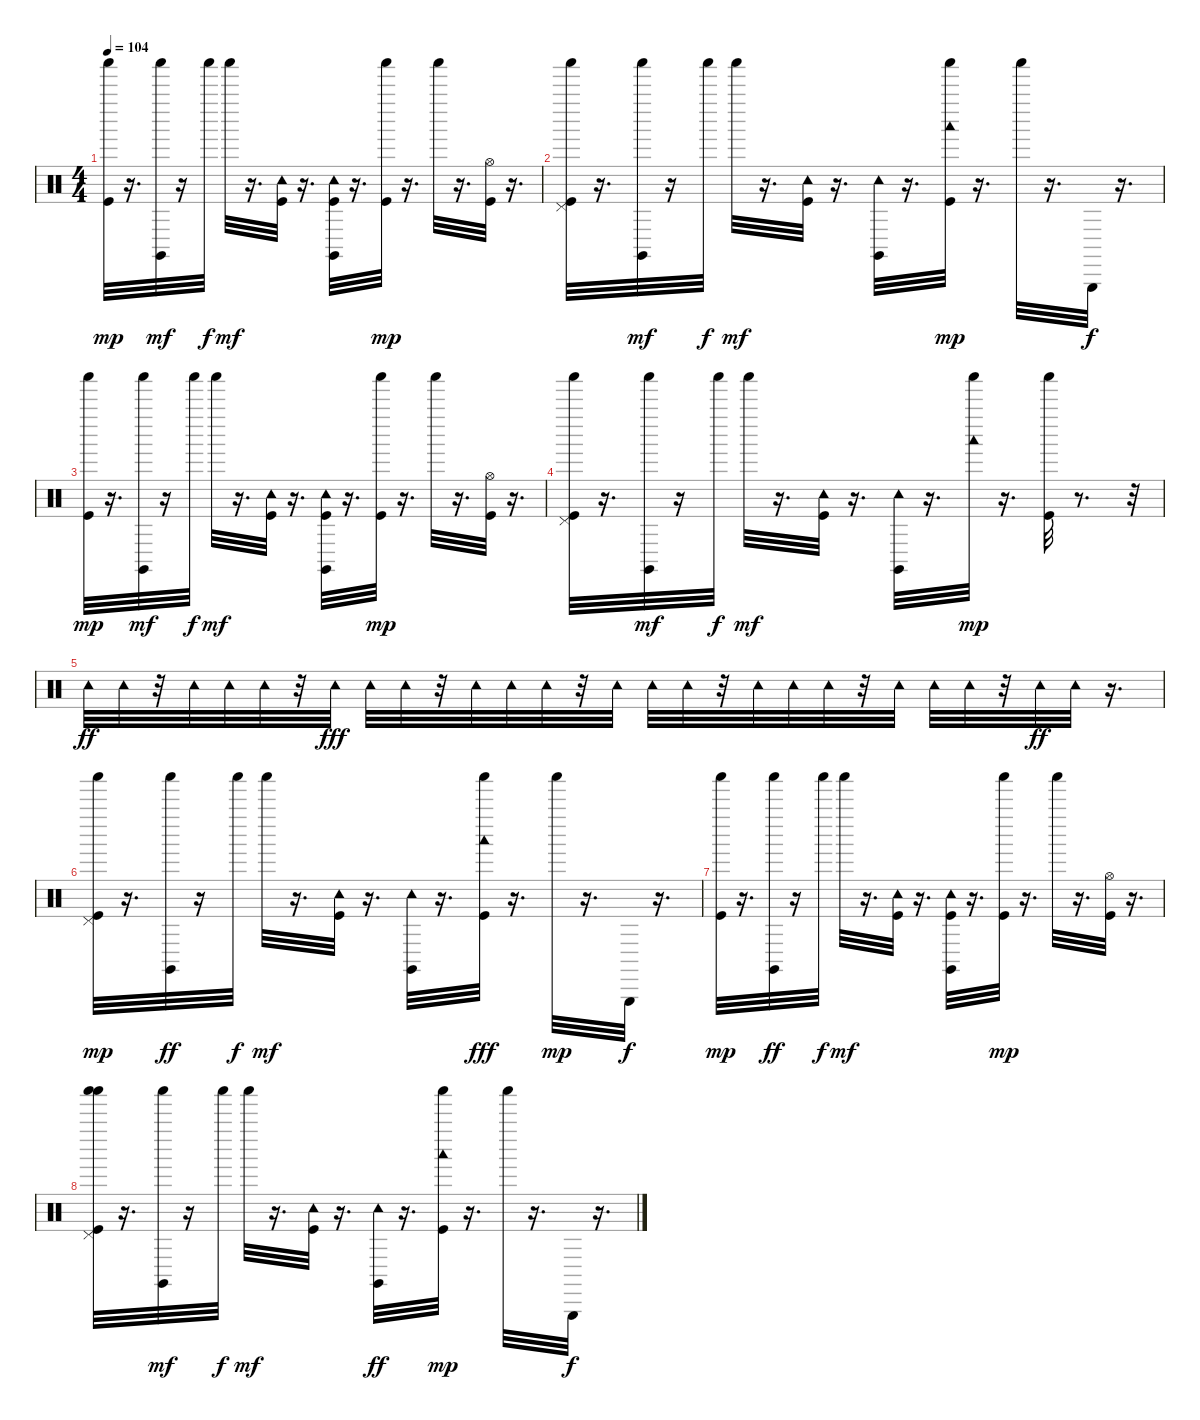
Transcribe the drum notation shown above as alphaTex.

\track "" {instrument percussion}
\staff {score}
\articulation defaults
\ts (4 4)
\tempo 104
\clef neutral
\ks c
("Shaker (hit)" "Kick (hit)").32{dy mp} r.16{d} ("Claves (hit)" "Shaker (hit)").32{dy mf} r.16 "Shaker (hit)".32{dy f} "Shaker (hit)".32{dy mf} r.16{d} ("Kick (hit)" "Tambourine (hit)").32 r.16{d} ("Claves (hit)" "Tambourine (hit)" "Kick (hit)").32 r.16{d} ("Shaker (hit)" "Kick (hit)").32{dy mp} r.16{d} "Shaker (hit)".32 r.16{d} ("Hi-Hat (open)" "Kick (hit)").32 r.16{d} |
("Pedal Hi-Hat (hit)" "Kick (hit)" "Shaker (hit)").32 r.16{d} ("Claves (hit)" "Shaker (hit)").32{dy mf} r.16 "Shaker (hit)".32{dy f} "Shaker (hit)".32{dy mf} r.16{d} ("Kick (hit)" "Tambourine (hit)").32 r.16{d} ("Claves (hit)" "Tambourine (hit)").32 r.16{d} ("Woodblock low (hit)" "Kick (hit)" "Shaker (hit)").32{dy mp} r.16{d} "Shaker (hit)".32 r.16{d} "Triangle (hit)".32{dy f} r.16{d} |
("Shaker (hit)" "Kick (hit)").32{dy mp} r.16{d} ("Claves (hit)" "Shaker (hit)").32{dy mf} r.16 "Shaker (hit)".32{dy f} "Shaker (hit)".32{dy mf} r.16{d} ("Kick (hit)" "Tambourine (hit)").32 r.16{d} ("Claves (hit)" "Tambourine (hit)" "Kick (hit)").32 r.16{d} ("Shaker (hit)" "Kick (hit)").32{dy mp} r.16{d} "Shaker (hit)".32 r.16{d} ("Hi-Hat (open)" "Kick (hit)").32 r.16{d} |
("Pedal Hi-Hat (hit)" "Kick (hit)" "Shaker (hit)").32 r.16{d} ("Claves (hit)" "Shaker (hit)").32{dy mf} r.16 "Shaker (hit)".32{dy f} "Shaker (hit)".32{dy mf} r.16{d} ("Kick (hit)" "Tambourine (hit)").32 r.16{d} ("Claves (hit)" "Tambourine (hit)").32 r.16{d} ("Woodblock low (hit)" "Shaker (hit)").32{dy mp} r.16{d} ("Kick (hit)" "Shaker (hit)").32 r.8{d} r.32 |
"Tambourine (hit)".32{dy ff} "Tambourine (hit)".32 r.32 "Tambourine (hit)".32 "Tambourine (hit)".32 "Tambourine (hit)".32 r.32 "Tambourine (hit)".32{dy fff} "Tambourine (hit)".32 "Tambourine (hit)".32 r.32 "Tambourine (hit)".32 "Tambourine (hit)".32 "Tambourine (hit)".32 r.32 "Tambourine (hit)".32 "Tambourine (hit)".32 "Tambourine (hit)".32 r.32 "Tambourine (hit)".32 "Tambourine (hit)".32 "Tambourine (hit)".32 r.32 "Tambourine (hit)".32 "Tambourine (hit)".32 "Tambourine (hit)".32 r.32 "Tambourine (hit)".32{dy ff} "Tambourine (hit)".32 r.16{d} |
("Kick (hit)" "Shaker (hit)" "Pedal Hi-Hat (hit)").32{dy mp} r.16{d} ("Shaker (hit)" "Claves (hit)").32{dy ff} r.16 "Shaker (hit)".32{dy f} "Shaker (hit)".32{dy mf} r.16{d} ("Kick (hit)" "Tambourine (hit)").32 r.16{d} ("Claves (hit)" "Tambourine (hit)").32 r.16{d} ("Kick (hit)" "Shaker (hit)" "Woodblock low (hit)").32{dy fff} r.16{d} "Shaker (hit)".32{dy mp} r.16{d} "Triangle (hit)".32{dy f} r.16{d} |
("Shaker (hit)" "Kick (hit)").32{dy mp} r.16{d} ("Shaker (hit)" "Claves (hit)").32{dy ff} r.16 "Shaker (hit)".32{dy f} "Shaker (hit)".32{dy mf} r.16{d} ("Kick (hit)" "Tambourine (hit)").32 r.16{d} ("Claves (hit)" "Kick (hit)" "Tambourine (hit)").32 r.16{d} ("Kick (hit)" "Shaker (hit)").32{dy mp} r.16{d} "Shaker (hit)".32 r.16{d} ("Kick (hit)" "Hi-Hat (open)").32 r.16{d} |
("Shaker (hit)" "Pedal Hi-Hat (hit)" "Kick (hit)" "Shaker (hit)").32 r.16{d} ("Claves (hit)" "Shaker (hit)").32{dy mf} r.16 "Shaker (hit)".32{dy f} "Shaker (hit)".32{dy mf} r.16{d} ("Tambourine (hit)" "Kick (hit)").32 r.16{d} ("Tambourine (hit)" "Claves (hit)").32{dy ff} r.16{d} ("Kick (hit)" "Woodblock low (hit)" "Shaker (hit)").32{dy mp} r.16{d} "Shaker (hit)".32 r.16{d} "Triangle (hit)".32{dy f} r.16{d}
